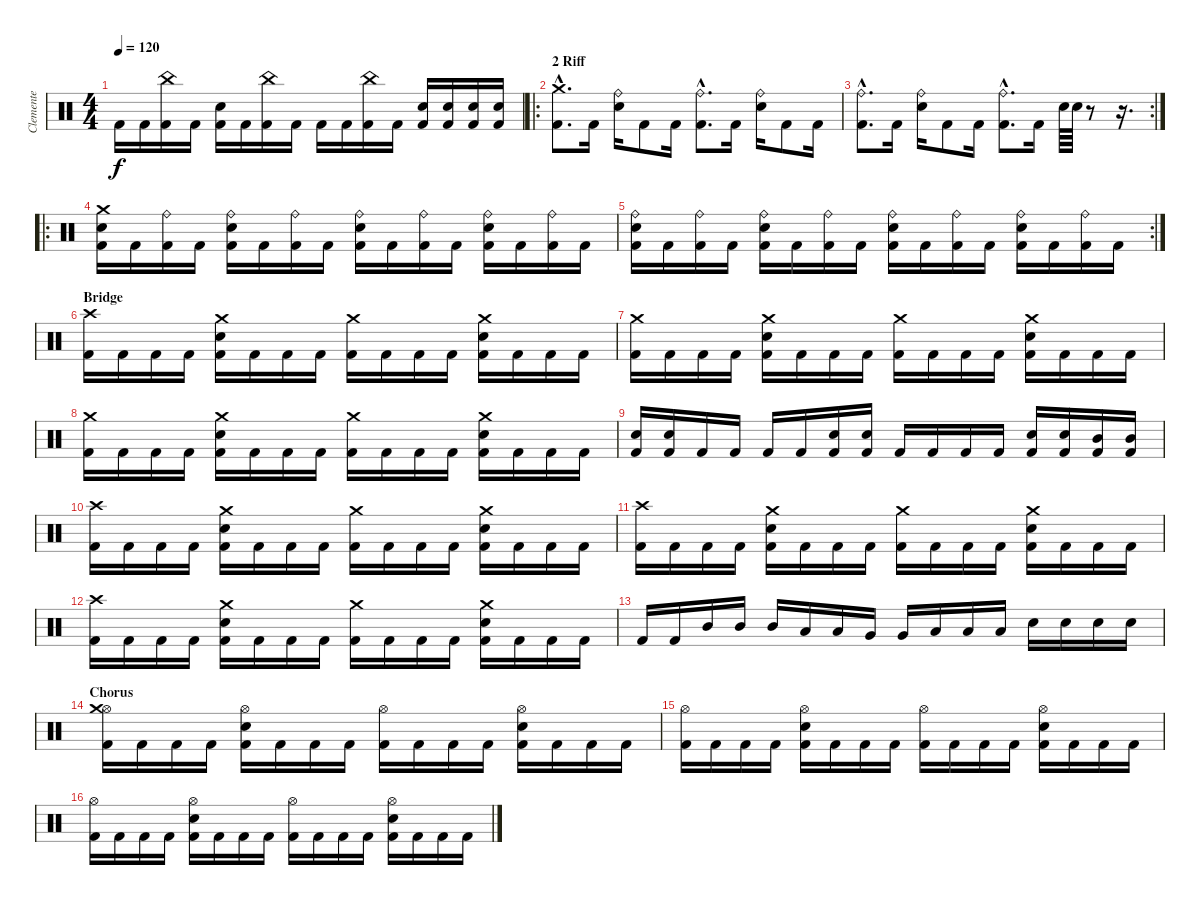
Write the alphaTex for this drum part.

\track ("Clemente" "Clemente") {instrument percussion}
\staff {score}
\articulation defaults
\ts (4 4)
\tempo 120
\clef neutral
\ks c "Kick (hit) 2".16{dy f} "Kick (hit) 2".16
("Kick (hit) 2" "China (hit)").16 "Kick (hit) 2".16 ("Kick (hit) 2" "Electric Snare (hit)").16 "Kick (hit) 2".16 ("Kick (hit) 2" "China (hit)").16 "Kick (hit) 2".16 "Kick (hit) 2".16 "Kick (hit) 2".16 ("Kick (hit) 2" "China (hit)").16 "Kick (hit) 2".16 ("Kick (hit) 2" "Electric Snare (hit)").16 ("Kick (hit) 2" "Electric Snare (hit)").16 ("Kick (hit) 2" "Electric Snare (hit)").16 ("Kick (hit) 2" "Electric Snare (hit)").16 |
\ro
\section ("" "2 Riff")
("Kick (hit) 2"{hac} "Crash medium (hit)"{hac}).8{d} "Kick (hit) 2".16 ("Electric Snare (hit)" "Ride (bell)").16 "Kick (hit) 2".8 "Kick (hit) 2".16 ("Kick (hit) 2"{hac} "Ride (bell)"{hac}).8{d} "Kick (hit) 2".16 ("Electric Snare (hit)" "Ride (bell)").16 "Kick (hit) 2".8 "Kick (hit) 2".16 |
\rc 2
("Kick (hit) 2"{hac} "Ride (bell)"{hac}).8{d} "Kick (hit) 2".16 ("Electric Snare (hit)" "Ride (bell)").16 "Kick (hit) 2".8 "Kick (hit) 2".16 ("Kick (hit) 2"{hac} "Ride (bell)"{hac}).8{d} "Kick (hit) 2".16 "Electric Snare (hit)".64 "Electric Snare (hit)".64 r.8 r.16{d} |
\ro
("Kick (hit) 2" "Electric Snare (hit)" "Crash medium (hit)").16 "Kick (hit) 2".16 ("Kick (hit) 2" "Ride (bell)").16 "Kick (hit) 2".16 ("Kick (hit) 2" "Electric Snare (hit)" "Ride (bell)").16 "Kick (hit) 2".16 ("Kick (hit) 2" "Ride (bell)").16 "Kick (hit) 2".16 ("Kick (hit) 2" "Electric Snare (hit)" "Ride (bell)").16 "Kick (hit) 2".16 ("Kick (hit) 2" "Ride (bell)").16 "Kick (hit) 2".16 ("Kick (hit) 2" "Electric Snare (hit)" "Ride (bell)").16 "Kick (hit) 2".16 ("Kick (hit) 2" "Ride (bell)").16 "Kick (hit) 2".16 |
\rc 2
("Kick (hit) 2" "Electric Snare (hit)" "Ride (bell)").16 "Kick (hit) 2".16 ("Kick (hit) 2" "Ride (bell)").16 "Kick (hit) 2".16 ("Kick (hit) 2" "Electric Snare (hit)" "Ride (bell)").16 "Kick (hit) 2".16 ("Kick (hit) 2" "Ride (bell)").16 "Kick (hit) 2".16 ("Kick (hit) 2" "Electric Snare (hit)" "Ride (bell)").16 "Kick (hit) 2".16 ("Kick (hit) 2" "Ride (bell)").16 "Kick (hit) 2".16 ("Kick (hit) 2" "Electric Snare (hit)" "Ride (bell)").16 "Kick (hit) 2".16 ("Kick (hit) 2" "Ride (bell)").16 "Kick (hit) 2".16 |
\section ("" "Bridge")
("Kick (hit) 2" "Crash high (hit)").16 "Kick (hit) 2".16 "Kick (hit) 2".16 "Kick (hit) 2".16 ("Kick (hit) 2" "Electric Snare (hit)" "Crash medium (hit)").16 "Kick (hit) 2".16 "Kick (hit) 2".16 "Kick (hit) 2".16 ("Kick (hit) 2" "Crash medium (hit)").16 "Kick (hit) 2".16 "Kick (hit) 2".16 "Kick (hit) 2".16 ("Kick (hit) 2" "Electric Snare (hit)" "Crash medium (hit)").16 "Kick (hit) 2".16 "Kick (hit) 2".16 "Kick (hit) 2".16 |
("Kick (hit) 2" "Crash medium (hit)").16 "Kick (hit) 2".16 "Kick (hit) 2".16 "Kick (hit) 2".16 ("Kick (hit) 2" "Electric Snare (hit)" "Crash medium (hit)").16 "Kick (hit) 2".16 "Kick (hit) 2".16 "Kick (hit) 2".16 ("Kick (hit) 2" "Crash medium (hit)").16 "Kick (hit) 2".16 "Kick (hit) 2".16 "Kick (hit) 2".16 ("Kick (hit) 2" "Electric Snare (hit)" "Crash medium (hit)").16 "Kick (hit) 2".16 "Kick (hit) 2".16 "Kick (hit) 2".16 |
("Kick (hit) 2" "Crash medium (hit)").16 "Kick (hit) 2".16 "Kick (hit) 2".16 "Kick (hit) 2".16 ("Kick (hit) 2" "Electric Snare (hit)" "Crash medium (hit)").16 "Kick (hit) 2".16 "Kick (hit) 2".16 "Kick (hit) 2".16 ("Kick (hit) 2" "Crash medium (hit)").16 "Kick (hit) 2".16 "Kick (hit) 2".16 "Kick (hit) 2".16 ("Kick (hit) 2" "Electric Snare (hit)" "Crash medium (hit)").16 "Kick (hit) 2".16 "Kick (hit) 2".16 "Kick (hit) 2".16 |
("Kick (hit) 2" "Electric Snare (hit)").16 ("Kick (hit) 2" "Electric Snare (hit)").16 "Kick (hit) 2".16 "Kick (hit) 2".16 "Kick (hit) 2".16 "Kick (hit) 2".16 ("Kick (hit) 2" "Electric Snare (hit)").16 ("Kick (hit) 2" "Electric Snare (hit)").16 "Kick (hit) 2".16 "Kick (hit) 2".16 "Kick (hit) 2".16 "Kick (hit) 2".16 ("Kick (hit) 2" "Electric Snare (hit)").16 ("Kick (hit) 2" "Electric Snare (hit)").16 ("Kick (hit) 2" "Mid Tom (hit)").16 ("Kick (hit) 2" "Mid Tom (hit)").16 |
("Kick (hit) 2" "Crash high (hit)").16 "Kick (hit) 2".16 "Kick (hit) 2".16 "Kick (hit) 2".16 ("Kick (hit) 2" "Electric Snare (hit)" "Crash medium (hit)").16 "Kick (hit) 2".16 "Kick (hit) 2".16 "Kick (hit) 2".16 ("Kick (hit) 2" "Crash medium (hit)").16 "Kick (hit) 2".16 "Kick (hit) 2".16 "Kick (hit) 2".16 ("Kick (hit) 2" "Electric Snare (hit)" "Crash medium (hit)").16 "Kick (hit) 2".16 "Kick (hit) 2".16 "Kick (hit) 2".16 |
("Kick (hit) 2" "Crash high (hit)").16 "Kick (hit) 2".16 "Kick (hit) 2".16 "Kick (hit) 2".16 ("Kick (hit) 2" "Electric Snare (hit)" "Crash medium (hit)").16 "Kick (hit) 2".16 "Kick (hit) 2".16 "Kick (hit) 2".16 ("Kick (hit) 2" "Crash medium (hit)").16 "Kick (hit) 2".16 "Kick (hit) 2".16 "Kick (hit) 2".16 ("Kick (hit) 2" "Electric Snare (hit)" "Crash medium (hit)").16 "Kick (hit) 2".16 "Kick (hit) 2".16 "Kick (hit) 2".16 |
("Kick (hit) 2" "Crash high (hit)").16 "Kick (hit) 2".16 "Kick (hit) 2".16 "Kick (hit) 2".16 ("Kick (hit) 2" "Electric Snare (hit)" "Crash medium (hit)").16 "Kick (hit) 2".16 "Kick (hit) 2".16 "Kick (hit) 2".16 ("Kick (hit) 2" "Crash medium (hit)").16 "Kick (hit) 2".16 "Kick (hit) 2".16 "Kick (hit) 2".16 ("Kick (hit) 2" "Electric Snare (hit)" "Crash medium (hit)").16 "Kick (hit) 2".16 "Kick (hit) 2".16 "Kick (hit) 2".16 |
"Kick (hit) 2".16 "Kick (hit) 2".16 "Mid Tom (hit)".16 "Mid Tom (hit)".16 "Mid Tom (hit)".16 "Low Tom (hit)".16 "Low Tom (hit)".16 "Very Low Tom (hit)".16 "Very Low Tom (hit)".16 "Low Floor Tom (hit)".16 "Low Floor Tom (hit)".16 "Low Floor Tom (hit)".16 "Electric Snare (hit)".16 "Electric Snare (hit)".16 "Electric Snare (hit)".16 "Electric Snare (hit)".16 |
\section ("" "Chorus")
("Kick (hit) 2" "Hi-Hat (open)" "Crash medium (hit)").16 "Kick (hit) 2".16 "Kick (hit) 2".16 "Kick (hit) 2".16 ("Kick (hit) 2" "Electric Snare (hit)" "Hi-Hat (open)").16 "Kick (hit) 2".16 "Kick (hit) 2".16 "Kick (hit) 2".16 ("Kick (hit) 2" "Hi-Hat (open)").16 "Kick (hit) 2".16 "Kick (hit) 2".16 "Kick (hit) 2".16 ("Kick (hit) 2" "Electric Snare (hit)" "Hi-Hat (open)").16 "Kick (hit) 2".16 "Kick (hit) 2".16 "Kick (hit) 2".16 |
("Kick (hit) 2" "Hi-Hat (open)").16 "Kick (hit) 2".16 "Kick (hit) 2".16 "Kick (hit) 2".16 ("Kick (hit) 2" "Electric Snare (hit)" "Hi-Hat (open)").16 "Kick (hit) 2".16 "Kick (hit) 2".16 "Kick (hit) 2".16 ("Kick (hit) 2" "Hi-Hat (open)").16 "Kick (hit) 2".16 "Kick (hit) 2".16 "Kick (hit) 2".16 ("Kick (hit) 2" "Electric Snare (hit)" "Hi-Hat (open)").16 "Kick (hit) 2".16 "Kick (hit) 2".16 "Kick (hit) 2".16 |
("Kick (hit) 2" "Hi-Hat (open)").16 "Kick (hit) 2".16 "Kick (hit) 2".16 "Kick (hit) 2".16 ("Kick (hit) 2" "Electric Snare (hit)" "Hi-Hat (open)").16 "Kick (hit) 2".16 "Kick (hit) 2".16 "Kick (hit) 2".16 ("Kick (hit) 2" "Hi-Hat (open)").16 "Kick (hit) 2".16 "Kick (hit) 2".16 "Kick (hit) 2".16 ("Kick (hit) 2" "Electric Snare (hit)" "Hi-Hat (open)").16 "Kick (hit) 2".16 "Kick (hit) 2".16 "Kick (hit) 2".16
